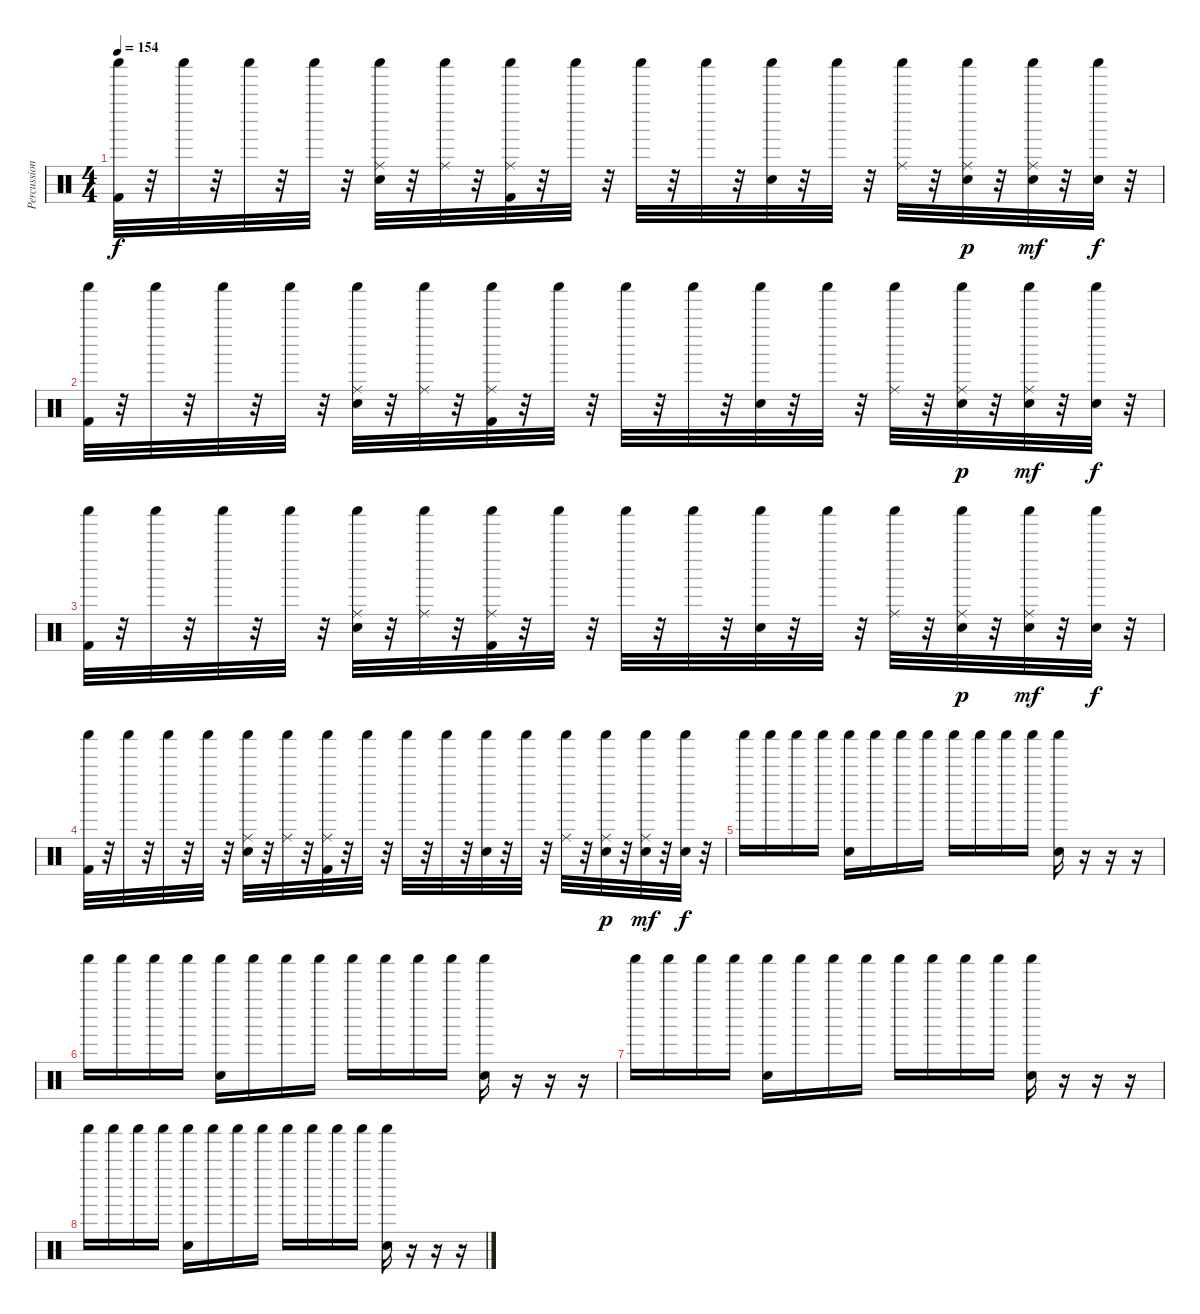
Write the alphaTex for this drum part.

\track ("Percussion" "Percussion") {instrument percussion}
\staff {score}
\articulation defaults
\ts (4 4)
\tempo 154
\clef neutral
\ks c
("Shaker (hit)" "Kick (hit) 2").32{dy f} r.32 "Shaker (hit)".32 r.32 "Shaker (hit)".32 r.32 "Shaker (hit)".32 r.32 ("Shaker (hit)" "Snare (hit) 2" "Ride (middle)").32 r.32 ("Shaker (hit)" "Ride (middle)").32 r.32 ("Shaker (hit)" "Kick (hit) 2" "Ride (middle)").32 r.32 "Shaker (hit)".32 r.32 "Shaker (hit)".32 r.32 "Shaker (hit)".32 r.32 ("Shaker (hit)" "Snare (hit) 2").32 r.32 "Shaker (hit)".32 r.32 ("Shaker (hit)" "Ride (middle)").32 r.32 ("Shaker (hit)" "Snare (hit) 2" "Ride (middle)").32{dy p} r.32 ("Shaker (hit)" "Snare (hit) 2" "Ride (middle)").32{dy mf} r.32 ("Shaker (hit)" "Snare (hit) 2").32{dy f} r.32 |
("Shaker (hit)" "Kick (hit) 2").32 r.32 "Shaker (hit)".32 r.32 "Shaker (hit)".32 r.32 "Shaker (hit)".32 r.32 ("Shaker (hit)" "Snare (hit) 2" "Ride (middle)").32 r.32 ("Shaker (hit)" "Ride (middle)").32 r.32 ("Shaker (hit)" "Kick (hit) 2" "Ride (middle)").32 r.32 "Shaker (hit)".32 r.32 "Shaker (hit)".32 r.32 "Shaker (hit)".32 r.32 ("Shaker (hit)" "Snare (hit) 2").32 r.32 "Shaker (hit)".32 r.32 ("Shaker (hit)" "Ride (middle)").32 r.32 ("Shaker (hit)" "Snare (hit) 2" "Ride (middle)").32{dy p} r.32 ("Shaker (hit)" "Snare (hit) 2" "Ride (middle)").32{dy mf} r.32 ("Shaker (hit)" "Snare (hit) 2").32{dy f} r.32 |
("Shaker (hit)" "Kick (hit) 2").32 r.32 "Shaker (hit)".32 r.32 "Shaker (hit)".32 r.32 "Shaker (hit)".32 r.32 ("Shaker (hit)" "Snare (hit) 2" "Ride (middle)").32 r.32 ("Shaker (hit)" "Ride (middle)").32 r.32 ("Shaker (hit)" "Kick (hit) 2" "Ride (middle)").32 r.32 "Shaker (hit)".32 r.32 "Shaker (hit)".32 r.32 "Shaker (hit)".32 r.32 ("Shaker (hit)" "Snare (hit) 2").32 r.32 "Shaker (hit)".32 r.32 ("Shaker (hit)" "Ride (middle)").32 r.32 ("Shaker (hit)" "Snare (hit) 2" "Ride (middle)").32{dy p} r.32 ("Shaker (hit)" "Snare (hit) 2" "Ride (middle)").32{dy mf} r.32 ("Shaker (hit)" "Snare (hit) 2").32{dy f} r.32 |
("Shaker (hit)" "Kick (hit) 2").32 r.32 "Shaker (hit)".32 r.32 "Shaker (hit)".32 r.32 "Shaker (hit)".32 r.32 ("Shaker (hit)" "Snare (hit) 2" "Ride (middle)").32 r.32 ("Shaker (hit)" "Ride (middle)").32 r.32 ("Shaker (hit)" "Kick (hit) 2" "Ride (middle)").32 r.32 "Shaker (hit)".32 r.32 "Shaker (hit)".32 r.32 "Shaker (hit)".32 r.32 ("Shaker (hit)" "Snare (hit) 2").32 r.32 "Shaker (hit)".32 r.32 ("Shaker (hit)" "Ride (middle)").32 r.32 ("Shaker (hit)" "Snare (hit) 2" "Ride (middle)").32{dy p} r.32 ("Shaker (hit)" "Snare (hit) 2" "Ride (middle)").32{dy mf} r.32 ("Shaker (hit)" "Snare (hit) 2").32{dy f} r.32 |
"Shaker (hit)".16 "Shaker (hit)".16 "Shaker (hit)".16 "Shaker (hit)".16 ("Shaker (hit)" "Snare (hit) 2").16 "Shaker (hit)".16 "Shaker (hit)".16 "Shaker (hit)".16 "Shaker (hit)".16 "Shaker (hit)".16 "Shaker (hit)".16 "Shaker (hit)".16 ("Shaker (hit)" "Snare (hit) 2").16 r.16 r.16 r.16 |
"Shaker (hit)".16 "Shaker (hit)".16 "Shaker (hit)".16 "Shaker (hit)".16 ("Shaker (hit)" "Snare (hit) 2").16 "Shaker (hit)".16 "Shaker (hit)".16 "Shaker (hit)".16 "Shaker (hit)".16 "Shaker (hit)".16 "Shaker (hit)".16 "Shaker (hit)".16 ("Shaker (hit)" "Snare (hit) 2").16 r.16 r.16 r.16 |
"Shaker (hit)".16 "Shaker (hit)".16 "Shaker (hit)".16 "Shaker (hit)".16 ("Shaker (hit)" "Snare (hit) 2").16 "Shaker (hit)".16 "Shaker (hit)".16 "Shaker (hit)".16 "Shaker (hit)".16 "Shaker (hit)".16 "Shaker (hit)".16 "Shaker (hit)".16 ("Shaker (hit)" "Snare (hit) 2").16 r.16 r.16 r.16 |
"Shaker (hit)".16 "Shaker (hit)".16 "Shaker (hit)".16 "Shaker (hit)".16 ("Shaker (hit)" "Snare (hit) 2").16 "Shaker (hit)".16 "Shaker (hit)".16 "Shaker (hit)".16 "Shaker (hit)".16 "Shaker (hit)".16 "Shaker (hit)".16 "Shaker (hit)".16 ("Shaker (hit)" "Snare (hit) 2").16 r.16 r.16 r.16
